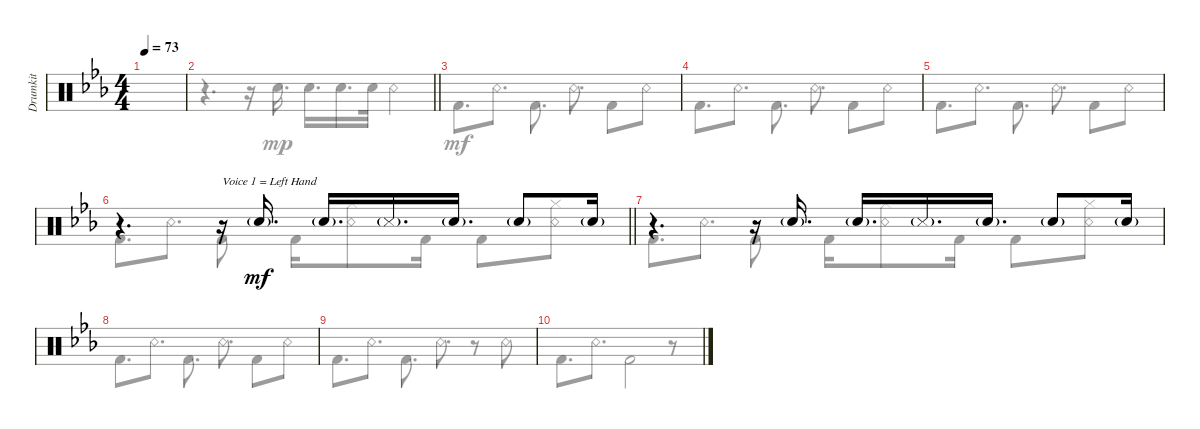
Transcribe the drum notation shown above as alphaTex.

\track ("Drumkit" "Drumkit") {instrument percussion}
\staff {score}
\articulation defaults
\voice
\ts (4 4)
\tempo 73
\clef neutral
\ks cminor
|
\barLineRight lightlight
|
|
|
|
\barLineRight lightlight
r.4{d} r.16{txt "Voice 1 = Left Hand"} "Snare (hit) 2"{g}.16{d dy mf} "Snare (hit) 2"{g}.16{d} "Snare (side stick) 3"{g}.16{d} "Snare (hit) 2"{g}.16{d} "Snare (hit) 2"{g}.8 "Snare (hit) 2"{g}.16 |
r.4{d} r.16 "Snare (hit) 2"{g}.16{d} "Snare (hit) 2"{g}.16{d} "Snare (side stick) 3"{g}.16{d} "Snare (hit) 2"{g}.16{d} "Snare (hit) 2"{g}.8 "Snare (hit) 2"{g}.16 |
|
|
\voice
\clef neutral
\ottava regular
\simile none
\ks cminor
|
\barLineRight lightlight
r.4{d} r.16 "Snare (hit) 2".16{d dy mp} "Snare (hit) 2".16{d} "Snare (hit) 2".16{d} "Snare (hit) 2".32 "Snare (rim shot)".4 |
"Kick (hit) 2".8{d dy mf} "Snare (rim shot)".8{d} "Kick (hit) 2".8{d} "Snare (rim shot)".8{d} "Kick (hit) 2".8 "Snare (rim shot)".8 |
"Kick (hit) 2".8{d} "Snare (rim shot)".8{d} "Kick (hit) 2".8{d} "Snare (rim shot)".8{d} "Kick (hit) 2".8 "Snare (rim shot)".8 |
"Kick (hit) 2".8{d} "Snare (rim shot)".8{d} "Kick (hit) 2".8{d} "Snare (rim shot)".8{d} "Kick (hit) 2".8 "Snare (rim shot)".8 |
\barLineRight lightlight "Kick (hit) 2".8{d} "Snare (rim shot)".8{d} "Kick (hit) 2".8{txt "Voice 1 = Left Hand"} "Kick (hit) 2".16
("Snare (rim shot)" "Hi-Hat (closed)").8 "Kick (hit) 2".16 "Kick (hit) 2".8 ("Snare (rim shot)" "Hi-Hat (closed)").8 |
"Kick (hit) 2".8{d} "Snare (rim shot)".8{d} "Kick (hit) 2".8 "Kick (hit) 2".16 ("Snare (rim shot)" "Hi-Hat (closed)").8 "Kick (hit) 2".16 "Kick (hit) 2".8 ("Snare (rim shot)" "Hi-Hat (closed)").8 |
"Kick (hit) 2".8{d} "Snare (rim shot)".8{d} "Kick (hit) 2".8{d} "Snare (rim shot)".8{d} "Kick (hit) 2".8 "Snare (rim shot)".8 |
"Kick (hit) 2".8{d} "Snare (rim shot)".8{d} "Kick (hit) 2".8{d} "Snare (rim shot)".8{d} r.8 "Snare (rim shot)".8 |
"Kick (hit) 2".8{d} "Snare (rim shot)".8{d} "Kick (hit) 2".2 r.8
